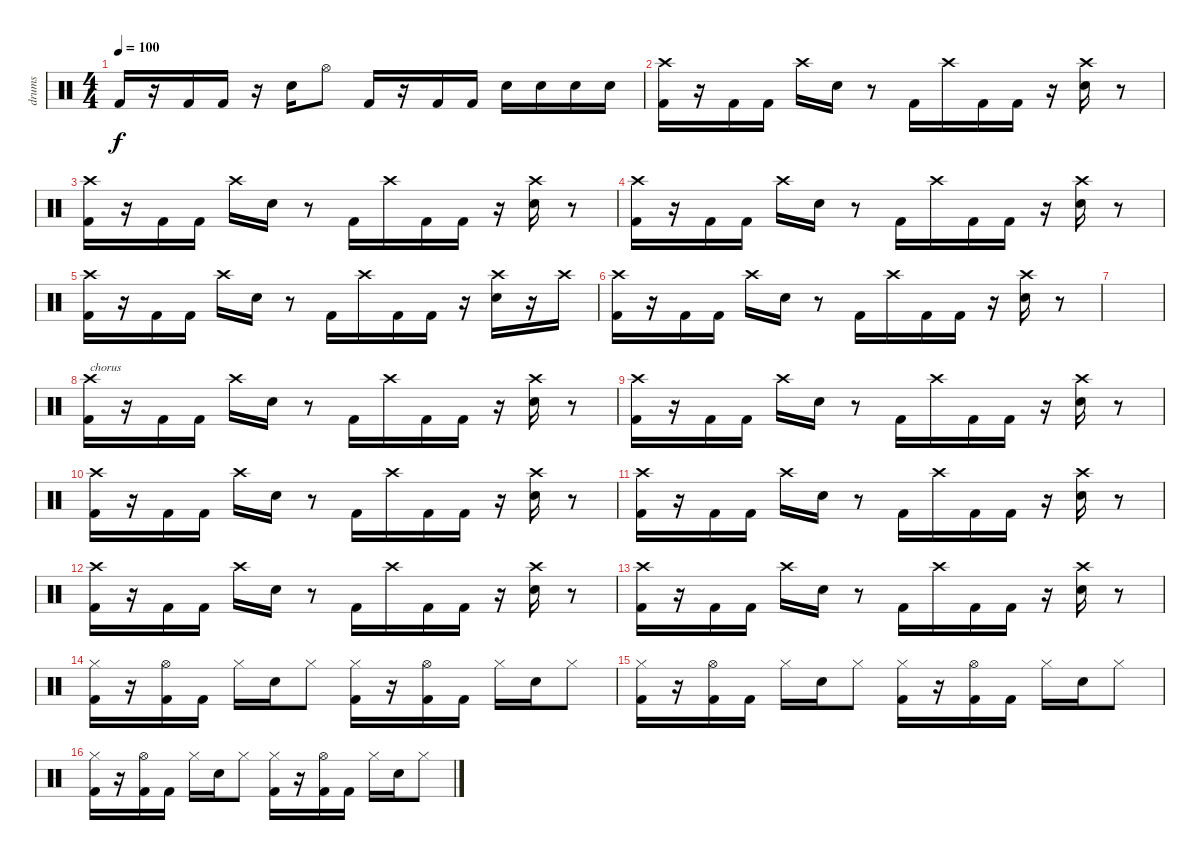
\track ("drums" "drums") {instrument percussion}
\staff {score}
\articulation defaults
\ts (4 4)
\tempo 100
\clef neutral
\ks c "Kick (hit) 2".16{dy f}
r.16 "Kick (hit) 2".16 "Kick (hit) 2".16 r.16 "Electric Snare (hit)".16 "Hi-Hat (open)".8 "Kick (hit) 2".16 r.16 "Kick (hit) 2".16 "Kick (hit) 2".16 "Electric Snare (hit)".16 "Electric Snare (hit)".16 "Electric Snare (hit)".16 "Electric Snare (hit)".16 |
("Crash high (hit)" "Kick (hit) 2").16 r.16 "Kick (hit) 2".16 "Kick (hit) 2".16 "Crash high (hit)".16 "Electric Snare (hit)".16 r.8 "Kick (hit) 2".16 "Crash high (hit)".16 "Kick (hit) 2".16 "Kick (hit) 2".16 r.16 ("Crash high (hit)" "Electric Snare (hit)").16 r.8 |
("Crash high (hit)" "Kick (hit) 2").16 r.16 "Kick (hit) 2".16 "Kick (hit) 2".16 "Crash high (hit)".16 "Electric Snare (hit)".16 r.8 "Kick (hit) 2".16 "Crash high (hit)".16 "Kick (hit) 2".16 "Kick (hit) 2".16 r.16 ("Crash high (hit)" "Electric Snare (hit)").16 r.8 |
("Crash high (hit)" "Kick (hit) 2").16 r.16 "Kick (hit) 2".16 "Kick (hit) 2".16 "Crash high (hit)".16 "Electric Snare (hit)".16 r.8 "Kick (hit) 2".16 "Crash high (hit)".16 "Kick (hit) 2".16 "Kick (hit) 2".16 r.16 ("Crash high (hit)" "Electric Snare (hit)").16 r.8 |
("Crash high (hit)" "Kick (hit) 2").16 r.16 "Kick (hit) 2".16 "Kick (hit) 2".16 "Crash high (hit)".16 "Electric Snare (hit)".16 r.8 "Kick (hit) 2".16 "Crash high (hit)".16 "Kick (hit) 2".16 "Kick (hit) 2".16 r.16 ("Crash high (hit)" "Electric Snare (hit)").16 r.16 "Crash high (hit)".16 |
("Crash high (hit)" "Kick (hit) 2").16 r.16 "Kick (hit) 2".16 "Kick (hit) 2".16 "Crash high (hit)".16 "Electric Snare (hit)".16 r.8 "Kick (hit) 2".16 "Crash high (hit)".16 "Kick (hit) 2".16 "Kick (hit) 2".16 r.16 ("Crash high (hit)" "Electric Snare (hit)").16 r.8 |
|
("Crash high (hit)" "Kick (hit) 2").16{txt "chorus"} r.16 "Kick (hit) 2".16 "Kick (hit) 2".16 "Crash high (hit)".16 "Electric Snare (hit)".16 r.8 "Kick (hit) 2".16 "Crash high (hit)".16 "Kick (hit) 2".16 "Kick (hit) 2".16 r.16 ("Crash high (hit)" "Electric Snare (hit)").16 r.8 |
("Crash high (hit)" "Kick (hit) 2").16 r.16 "Kick (hit) 2".16 "Kick (hit) 2".16 "Crash high (hit)".16 "Electric Snare (hit)".16 r.8 "Kick (hit) 2".16 "Crash high (hit)".16 "Kick (hit) 2".16 "Kick (hit) 2".16 r.16 ("Crash high (hit)" "Electric Snare (hit)").16 r.8 |
("Crash high (hit)" "Kick (hit) 2").16 r.16 "Kick (hit) 2".16 "Kick (hit) 2".16 "Crash high (hit)".16 "Electric Snare (hit)".16 r.8 "Kick (hit) 2".16 "Crash high (hit)".16 "Kick (hit) 2".16 "Kick (hit) 2".16 r.16 ("Crash high (hit)" "Electric Snare (hit)").16 r.8 |
("Crash high (hit)" "Kick (hit) 2").16 r.16 "Kick (hit) 2".16 "Kick (hit) 2".16 "Crash high (hit)".16 "Electric Snare (hit)".16 r.8 "Kick (hit) 2".16 "Crash high (hit)".16 "Kick (hit) 2".16 "Kick (hit) 2".16 r.16 ("Crash high (hit)" "Electric Snare (hit)").16 r.8 |
("Crash high (hit)" "Kick (hit) 2").16 r.16 "Kick (hit) 2".16 "Kick (hit) 2".16 "Crash high (hit)".16 "Electric Snare (hit)".16 r.8 "Kick (hit) 2".16 "Crash high (hit)".16 "Kick (hit) 2".16 "Kick (hit) 2".16 r.16 ("Crash high (hit)" "Electric Snare (hit)").16 r.8 |
("Crash high (hit)" "Kick (hit) 2").16 r.16 "Kick (hit) 2".16 "Kick (hit) 2".16 "Crash high (hit)".16 "Electric Snare (hit)".16 r.8 "Kick (hit) 2".16 "Crash high (hit)".16 "Kick (hit) 2".16 "Kick (hit) 2".16 r.16 ("Crash high (hit)" "Electric Snare (hit)").16 r.8 |
("Hi-Hat (closed)" "Kick (hit) 2").16 r.16 ("Hi-Hat (open)" "Kick (hit) 2").16 "Kick (hit) 2".16 "Hi-Hat (closed)".16 "Electric Snare (hit)".16 "Hi-Hat (closed)".8 ("Hi-Hat (closed)" "Kick (hit) 2").16 r.16 ("Hi-Hat (open)" "Kick (hit) 2").16 "Kick (hit) 2".16 "Hi-Hat (closed)".16 "Electric Snare (hit)".16 "Hi-Hat (closed)".8 |
("Hi-Hat (closed)" "Kick (hit) 2").16 r.16 ("Hi-Hat (open)" "Kick (hit) 2").16 "Kick (hit) 2".16 "Hi-Hat (closed)".16 "Electric Snare (hit)".16 "Hi-Hat (closed)".8 ("Hi-Hat (closed)" "Kick (hit) 2").16 r.16 ("Hi-Hat (open)" "Kick (hit) 2").16 "Kick (hit) 2".16 "Hi-Hat (closed)".16 "Electric Snare (hit)".16 "Hi-Hat (closed)".8 |
("Hi-Hat (closed)" "Kick (hit) 2").16 r.16 ("Hi-Hat (open)" "Kick (hit) 2").16 "Kick (hit) 2".16 "Hi-Hat (closed)".16 "Electric Snare (hit)".16 "Hi-Hat (closed)".8 ("Hi-Hat (closed)" "Kick (hit) 2").16 r.16 ("Hi-Hat (open)" "Kick (hit) 2").16 "Kick (hit) 2".16 "Hi-Hat (closed)".16 "Electric Snare (hit)".16 "Hi-Hat (closed)".8
